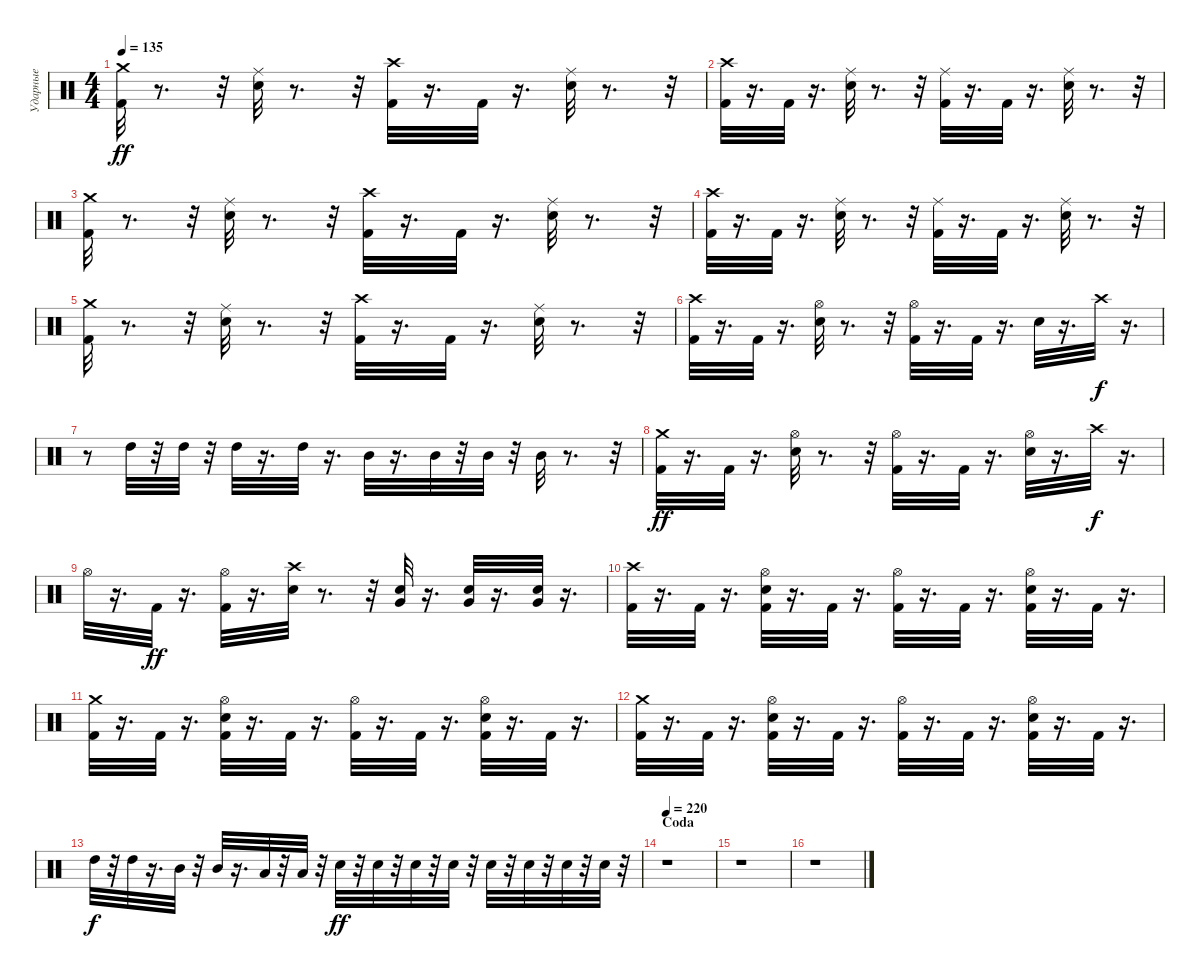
\track ("Ударные" "Ударные") {instrument percussion}
\staff {score}
\articulation defaults
\ts (4 4)
\tempo 135
\clef neutral
\ks c
("Kick (hit) 2" "Crash medium (hit)").32{dy ff} r.8{d} r.32 ("Electric Snare (hit)" "Ride (middle)").32 r.8{d} r.32 ("Kick (hit) 2" "Crash high (hit)").32 r.16{d} "Kick (hit) 2".32 r.16{d} ("Electric Snare (hit)" "Ride (middle)").32 r.8{d} r.32 |
("Crash high (hit)" "Kick (hit) 2").32 r.16{d} "Kick (hit) 2".32 r.16{d} ("Ride (middle)" "Electric Snare (hit)").32 r.8{d} r.32 ("Ride (middle)" "Kick (hit) 2").32 r.16{d} "Kick (hit) 2".32 r.16{d} ("Ride (middle)" "Electric Snare (hit)").32 r.8{d} r.32 |
("Crash medium (hit)" "Kick (hit) 2").32 r.8{d} r.32 ("Ride (middle)" "Electric Snare (hit)").32 r.8{d} r.32 ("Crash high (hit)" "Kick (hit) 2").32 r.16{d} "Kick (hit) 2".32 r.16{d} ("Ride (middle)" "Electric Snare (hit)").32 r.8{d} r.32 |
("Crash high (hit)" "Kick (hit) 2").32 r.16{d} "Kick (hit) 2".32 r.16{d} ("Ride (middle)" "Electric Snare (hit)").32 r.8{d} r.32 ("Ride (middle)" "Kick (hit) 2").32 r.16{d} "Kick (hit) 2".32 r.16{d} ("Ride (middle)" "Electric Snare (hit)").32 r.8{d} r.32 |
("Kick (hit) 2" "Crash medium (hit)").32 r.8{d} r.32 ("Electric Snare (hit)" "Ride (middle)").32 r.8{d} r.32 ("Kick (hit) 2" "Crash high (hit)").32 r.16{d} "Kick (hit) 2".32 r.16{d} ("Electric Snare (hit)" "Ride (middle)").32 r.8{d} r.32 |
("Crash high (hit)" "Kick (hit) 2").32 r.16{d} "Kick (hit) 2".32 r.16{d} ("Hi-Hat (open)" "Electric Snare (hit)").32 r.8{d} r.32 ("Hi-Hat (open)" "Kick (hit) 2").32 r.16{d} "Kick (hit) 2".32 r.16{d} "Electric Snare (hit)".32 r.16{d} "Crash high (hit)".32{dy f} r.16{d} |
r.8 "High Tom (hit)".32 r.32 "High Tom (hit)".32 r.32 "High Tom (hit)".32 r.16{d} "High Tom (hit)".32 r.16{d} "Mid Tom (hit)".32 r.16{d} "Mid Tom (hit)".32 r.32 "Mid Tom (hit)".32 r.32 "Mid Tom (hit)".32 r.8{d} r.32 |
("Crash medium (hit)" "Kick (hit) 2").32{dy ff} r.16{d} "Kick (hit) 2".32 r.16{d} ("Hi-Hat (open)" "Electric Snare (hit)").32 r.8{d} r.32 ("Hi-Hat (open)" "Kick (hit) 2").32 r.16{d} "Kick (hit) 2".32 r.16{d} ("Hi-Hat (open)" "Electric Snare (hit)").32 r.16{d} "Crash high (hit)".32{dy f} r.16{d} |
"Hi-Hat (open)".32 r.16{d} "Kick (hit) 2".32{dy ff} r.16{d} ("Hi-Hat (open)" "Kick (hit) 2").32 r.16{d} ("Crash high (hit)" "Electric Snare (hit)").32 r.8{d} r.32 ("Very Low Tom (hit)" "Electric Snare (hit)").32 r.16{d} ("Very Low Tom (hit)" "Electric Snare (hit)").32 r.16{d} ("Very Low Tom (hit)" "Electric Snare (hit)").32 r.16{d} |
("Crash high (hit)" "Kick (hit) 2").32 r.16{d} "Kick (hit) 2".32 r.16{d} ("Hi-Hat (open)" "Electric Snare (hit)" "Kick (hit) 2").32 r.16{d} "Kick (hit) 2".32 r.16{d} ("Hi-Hat (open)" "Kick (hit) 2").32 r.16{d} "Kick (hit) 2".32 r.16{d} ("Hi-Hat (open)" "Electric Snare (hit)" "Kick (hit) 2").32 r.16{d} "Kick (hit) 2".32 r.16{d} |
("Crash medium (hit)" "Kick (hit) 2").32 r.16{d} "Kick (hit) 2".32 r.16{d} ("Hi-Hat (open)" "Electric Snare (hit)" "Kick (hit) 2").32 r.16{d} "Kick (hit) 2".32 r.16{d} ("Hi-Hat (open)" "Kick (hit) 2").32 r.16{d} "Kick (hit) 2".32 r.16{d} ("Hi-Hat (open)" "Electric Snare (hit)" "Kick (hit) 2").32 r.16{d} "Kick (hit) 2".32 r.16{d} |
("Crash medium (hit)" "Kick (hit) 2").32 r.16{d} "Kick (hit) 2".32 r.16{d} ("Hi-Hat (open)" "Electric Snare (hit)" "Kick (hit) 2").32 r.16{d} "Kick (hit) 2".32 r.16{d} ("Hi-Hat (open)" "Kick (hit) 2").32 r.16{d} "Kick (hit) 2".32 r.16{d} ("Hi-Hat (open)" "Electric Snare (hit)" "Kick (hit) 2").32 r.16{d} "Kick (hit) 2".32 r.16{d} |
"High Tom (hit)".32{dy f} r.32 "High Tom (hit)".32 r.16{d} "Mid Tom (hit)".32 r.32 "Mid Tom (hit)".32 r.16{d} "Low Tom (hit)".32 r.32 "Low Tom (hit)".32 r.32 "Electric Snare (hit)".32{dy ff} r.32 "Electric Snare (hit)".32 r.32 "Electric Snare (hit)".32 r.32 "Electric Snare (hit)".32 r.32 "Electric Snare (hit)".32 r.32 "Electric Snare (hit)".32 r.32 "Electric Snare (hit)".32 r.32 "Electric Snare (hit)".32 r.32 |
\section ("" "Coda")
\tempo 220
r.1 |
r.1 |
r.1
